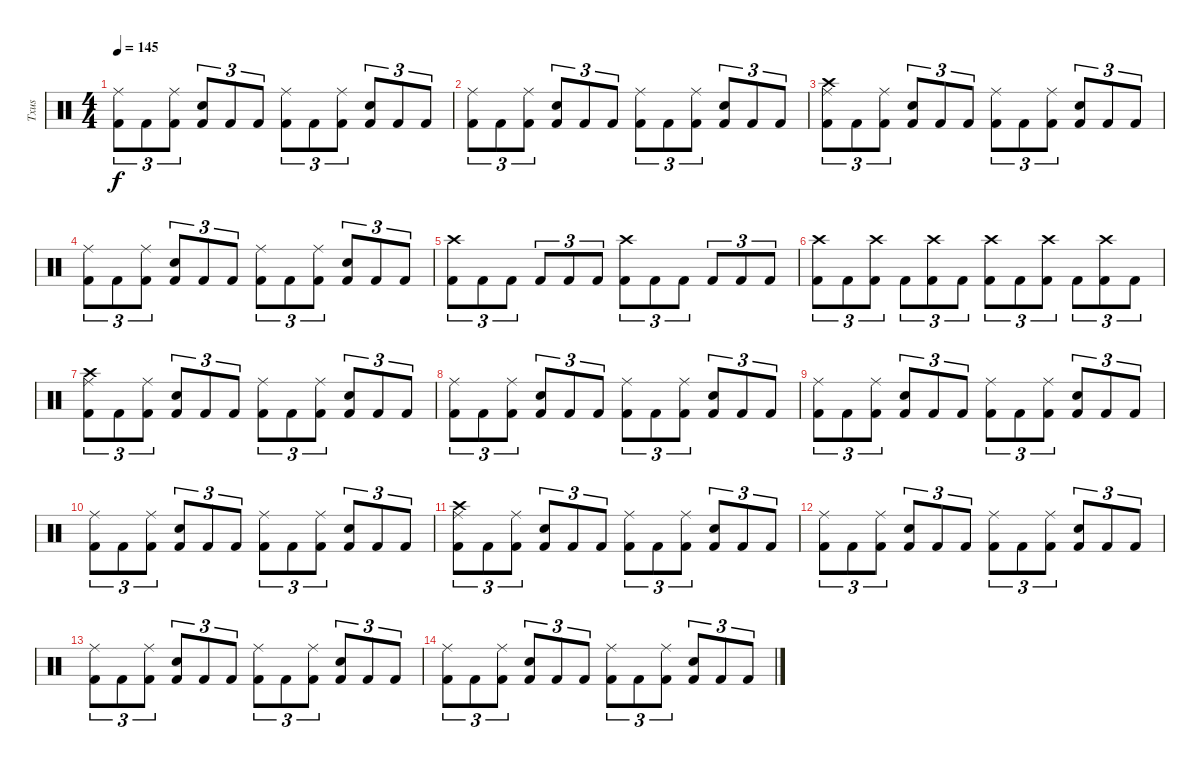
\track ("Txus" "Txus") {instrument percussion}
\staff {score}
\articulation defaults
\ts (4 4)
\tempo 145
\clef neutral
\ks c
("Kick (hit) 2" "Ride (middle)").8{tu (3 2) dy f} "Kick (hit) 2".8{tu (3 2)} ("Kick (hit) 2" "Ride (middle)").8{tu (3 2)} ("Kick (hit) 2" "Electric Snare (hit)").8{tu (3 2)} "Kick (hit) 2".8{tu (3 2)} "Kick (hit) 2".8{tu (3 2)} ("Kick (hit) 2" "Ride (middle)").8{tu (3 2)} "Kick (hit) 2".8{tu (3 2)} ("Kick (hit) 2" "Ride (middle)").8{tu (3 2)} ("Kick (hit) 2" "Electric Snare (hit)").8{tu (3 2)} "Kick (hit) 2".8{tu (3 2)} "Kick (hit) 2".8{tu (3 2)} |
("Kick (hit) 2" "Ride (middle)").8{tu (3 2)} "Kick (hit) 2".8{tu (3 2)} ("Kick (hit) 2" "Ride (middle)").8{tu (3 2)} ("Kick (hit) 2" "Electric Snare (hit)").8{tu (3 2)} "Kick (hit) 2".8{tu (3 2)} "Kick (hit) 2".8{tu (3 2)} ("Kick (hit) 2" "Ride (middle)").8{tu (3 2)} "Kick (hit) 2".8{tu (3 2)} ("Kick (hit) 2" "Ride (middle)").8{tu (3 2)} ("Kick (hit) 2" "Electric Snare (hit)").8{tu (3 2)} "Kick (hit) 2".8{tu (3 2)} "Kick (hit) 2".8{tu (3 2)} |
("Kick (hit) 2" "Ride (middle)" "Crash high (hit)").8{tu (3 2)} "Kick (hit) 2".8{tu (3 2)} ("Kick (hit) 2" "Ride (middle)").8{tu (3 2)} ("Kick (hit) 2" "Electric Snare (hit)").8{tu (3 2)} "Kick (hit) 2".8{tu (3 2)} "Kick (hit) 2".8{tu (3 2)} ("Kick (hit) 2" "Ride (middle)").8{tu (3 2)} "Kick (hit) 2".8{tu (3 2)} ("Kick (hit) 2" "Ride (middle)").8{tu (3 2)} ("Kick (hit) 2" "Electric Snare (hit)").8{tu (3 2)} "Kick (hit) 2".8{tu (3 2)} "Kick (hit) 2".8{tu (3 2)} |
("Kick (hit) 2" "Ride (middle)").8{tu (3 2)} "Kick (hit) 2".8{tu (3 2)} ("Kick (hit) 2" "Ride (middle)").8{tu (3 2)} ("Kick (hit) 2" "Electric Snare (hit)").8{tu (3 2)} "Kick (hit) 2".8{tu (3 2)} "Kick (hit) 2".8{tu (3 2)} ("Kick (hit) 2" "Ride (middle)").8{tu (3 2)} "Kick (hit) 2".8{tu (3 2)} ("Kick (hit) 2" "Ride (middle)").8{tu (3 2)} ("Kick (hit) 2" "Electric Snare (hit)").8{tu (3 2)} "Kick (hit) 2".8{tu (3 2)} "Kick (hit) 2".8{tu (3 2)} |
("Kick (hit) 2" "Crash high (hit)").8{tu (3 2)} "Kick (hit) 2".8{tu (3 2)} "Kick (hit) 2".8{tu (3 2)} "Kick (hit) 2".8{tu (3 2)} "Kick (hit) 2".8{tu (3 2)} "Kick (hit) 2".8{tu (3 2)} ("Kick (hit) 2" "Crash high (hit)").8{tu (3 2)} "Kick (hit) 2".8{tu (3 2)} "Kick (hit) 2".8{tu (3 2)} "Kick (hit) 2".8{tu (3 2)} "Kick (hit) 2".8{tu (3 2)} "Kick (hit) 2".8{tu (3 2)} |
("Kick (hit) 2" "Crash high (hit)").8{tu (3 2)} "Kick (hit) 2".8{tu (3 2)} ("Kick (hit) 2" "Crash high (hit)").8{tu (3 2)} "Kick (hit) 2".8{tu (3 2)} ("Kick (hit) 2" "Crash high (hit)").8{tu (3 2)} "Kick (hit) 2".8{tu (3 2)} ("Kick (hit) 2" "Crash high (hit)").8{tu (3 2)} "Kick (hit) 2".8{tu (3 2)} ("Kick (hit) 2" "Crash high (hit)").8{tu (3 2)} "Kick (hit) 2".8{tu (3 2)} ("Kick (hit) 2" "Crash high (hit)").8{tu (3 2)} "Kick (hit) 2".8{tu (3 2)} |
("Kick (hit) 2" "Ride (middle)" "Crash high (hit)").8{tu (3 2)} "Kick (hit) 2".8{tu (3 2)} ("Kick (hit) 2" "Ride (middle)").8{tu (3 2)} ("Kick (hit) 2" "Electric Snare (hit)").8{tu (3 2)} "Kick (hit) 2".8{tu (3 2)} "Kick (hit) 2".8{tu (3 2)} ("Kick (hit) 2" "Ride (middle)").8{tu (3 2)} "Kick (hit) 2".8{tu (3 2)} ("Kick (hit) 2" "Ride (middle)").8{tu (3 2)} ("Kick (hit) 2" "Electric Snare (hit)").8{tu (3 2)} "Kick (hit) 2".8{tu (3 2)} "Kick (hit) 2".8{tu (3 2)} |
("Kick (hit) 2" "Ride (middle)").8{tu (3 2)} "Kick (hit) 2".8{tu (3 2)} ("Kick (hit) 2" "Ride (middle)").8{tu (3 2)} ("Kick (hit) 2" "Electric Snare (hit)").8{tu (3 2)} "Kick (hit) 2".8{tu (3 2)} "Kick (hit) 2".8{tu (3 2)} ("Kick (hit) 2" "Ride (middle)").8{tu (3 2)} "Kick (hit) 2".8{tu (3 2)} ("Kick (hit) 2" "Ride (middle)").8{tu (3 2)} ("Kick (hit) 2" "Electric Snare (hit)").8{tu (3 2)} "Kick (hit) 2".8{tu (3 2)} "Kick (hit) 2".8{tu (3 2)} |
("Kick (hit) 2" "Ride (middle)").8{tu (3 2)} "Kick (hit) 2".8{tu (3 2)} ("Kick (hit) 2" "Ride (middle)").8{tu (3 2)} ("Kick (hit) 2" "Electric Snare (hit)").8{tu (3 2)} "Kick (hit) 2".8{tu (3 2)} "Kick (hit) 2".8{tu (3 2)} ("Kick (hit) 2" "Ride (middle)").8{tu (3 2)} "Kick (hit) 2".8{tu (3 2)} ("Kick (hit) 2" "Ride (middle)").8{tu (3 2)} ("Kick (hit) 2" "Electric Snare (hit)").8{tu (3 2)} "Kick (hit) 2".8{tu (3 2)} "Kick (hit) 2".8{tu (3 2)} |
("Kick (hit) 2" "Ride (middle)").8{tu (3 2)} "Kick (hit) 2".8{tu (3 2)} ("Kick (hit) 2" "Ride (middle)").8{tu (3 2)} ("Kick (hit) 2" "Electric Snare (hit)").8{tu (3 2)} "Kick (hit) 2".8{tu (3 2)} "Kick (hit) 2".8{tu (3 2)} ("Kick (hit) 2" "Ride (middle)").8{tu (3 2)} "Kick (hit) 2".8{tu (3 2)} ("Kick (hit) 2" "Ride (middle)").8{tu (3 2)} ("Kick (hit) 2" "Electric Snare (hit)").8{tu (3 2)} "Kick (hit) 2".8{tu (3 2)} "Kick (hit) 2".8{tu (3 2)} |
("Kick (hit) 2" "Ride (middle)" "Crash high (hit)").8{tu (3 2)} "Kick (hit) 2".8{tu (3 2)} ("Kick (hit) 2" "Ride (middle)").8{tu (3 2)} ("Kick (hit) 2" "Electric Snare (hit)").8{tu (3 2)} "Kick (hit) 2".8{tu (3 2)} "Kick (hit) 2".8{tu (3 2)} ("Kick (hit) 2" "Ride (middle)").8{tu (3 2)} "Kick (hit) 2".8{tu (3 2)} ("Kick (hit) 2" "Ride (middle)").8{tu (3 2)} ("Kick (hit) 2" "Electric Snare (hit)").8{tu (3 2)} "Kick (hit) 2".8{tu (3 2)} "Kick (hit) 2".8{tu (3 2)} |
("Kick (hit) 2" "Ride (middle)").8{tu (3 2)} "Kick (hit) 2".8{tu (3 2)} ("Kick (hit) 2" "Ride (middle)").8{tu (3 2)} ("Kick (hit) 2" "Electric Snare (hit)").8{tu (3 2)} "Kick (hit) 2".8{tu (3 2)} "Kick (hit) 2".8{tu (3 2)} ("Kick (hit) 2" "Ride (middle)").8{tu (3 2)} "Kick (hit) 2".8{tu (3 2)} ("Kick (hit) 2" "Ride (middle)").8{tu (3 2)} ("Kick (hit) 2" "Electric Snare (hit)").8{tu (3 2)} "Kick (hit) 2".8{tu (3 2)} "Kick (hit) 2".8{tu (3 2)} |
("Kick (hit) 2" "Ride (middle)").8{tu (3 2)} "Kick (hit) 2".8{tu (3 2)} ("Kick (hit) 2" "Ride (middle)").8{tu (3 2)} ("Kick (hit) 2" "Electric Snare (hit)").8{tu (3 2)} "Kick (hit) 2".8{tu (3 2)} "Kick (hit) 2".8{tu (3 2)} ("Kick (hit) 2" "Ride (middle)").8{tu (3 2)} "Kick (hit) 2".8{tu (3 2)} ("Kick (hit) 2" "Ride (middle)").8{tu (3 2)} ("Kick (hit) 2" "Electric Snare (hit)").8{tu (3 2)} "Kick (hit) 2".8{tu (3 2)} "Kick (hit) 2".8{tu (3 2)} |
("Kick (hit) 2" "Ride (middle)").8{tu (3 2)} "Kick (hit) 2".8{tu (3 2)} ("Kick (hit) 2" "Ride (middle)").8{tu (3 2)} ("Kick (hit) 2" "Electric Snare (hit)").8{tu (3 2)} "Kick (hit) 2".8{tu (3 2)} "Kick (hit) 2".8{tu (3 2)} ("Kick (hit) 2" "Ride (middle)").8{tu (3 2)} "Kick (hit) 2".8{tu (3 2)} ("Kick (hit) 2" "Ride (middle)").8{tu (3 2)} ("Kick (hit) 2" "Electric Snare (hit)").8{tu (3 2)} "Kick (hit) 2".8{tu (3 2)} "Kick (hit) 2".8{tu (3 2)}
